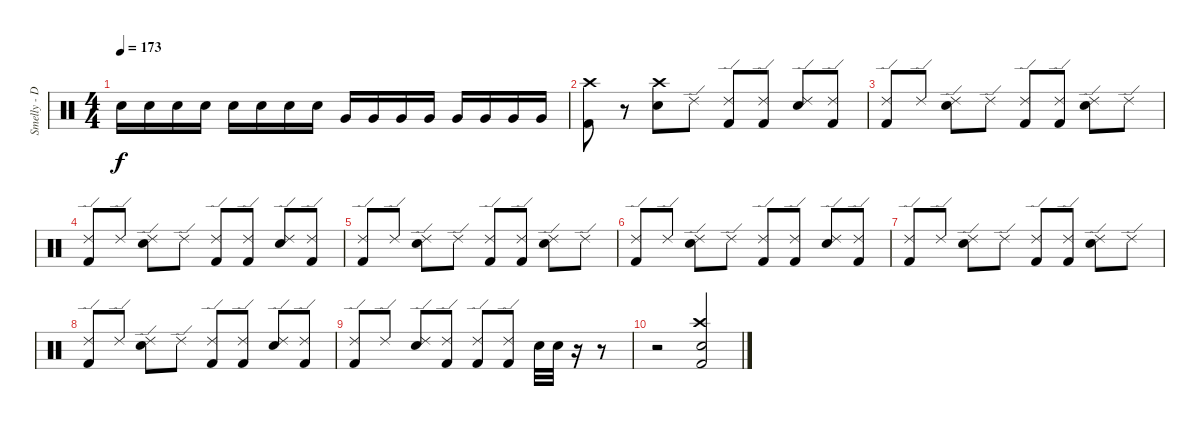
\track ("Smelly - Drums" "Smelly - D") {instrument percussion}
\staff {score}
\articulation defaults
\ts (4 4)
\tempo 173
\clef neutral
\ks c "Snare (hit) 2".16{dy f} "Snare (hit) 2".16 "Snare (hit) 2".16 "Snare (hit) 2".16 "Snare (hit) 2".16 "Snare (hit) 2".16 "Snare (hit) 2".16 "Snare (hit) 2".16 "Very Low Tom (hit)".16 "Very Low Tom (hit)".16 "Very Low Tom (hit)".16 "Very Low Tom (hit)".16 "Very Low Tom (hit)".16 "Very Low Tom (hit)".16 "Very Low Tom (hit)".16 "Very Low Tom (hit)".16
|
("Crash high (hit)" "Kick (hit) 2").8 r.8 ("Crash high (hit)" "Snare (hit) 2").8 "Ride (edge) 2".8 ("Ride (edge) 2" "Kick (hit) 2").8 ("Ride (edge) 2" "Kick (hit) 2").8 ("Ride (edge) 2" "Snare (hit) 2").8 ("Ride (edge) 2" "Kick (hit) 2").8 |
("Ride (edge) 2" "Kick (hit) 2").8 "Ride (edge) 2".8 ("Ride (edge) 2" "Snare (hit) 2").8 "Ride (edge) 2".8 ("Ride (edge) 2" "Kick (hit) 2").8 ("Ride (edge) 2" "Kick (hit) 2").8 ("Ride (edge) 2" "Snare (hit) 2").8 "Ride (edge) 2".8 |
("Ride (edge) 2" "Kick (hit) 2").8 "Ride (edge) 2".8 ("Ride (edge) 2" "Snare (hit) 2").8 "Ride (edge) 2".8 ("Ride (edge) 2" "Kick (hit) 2").8 ("Ride (edge) 2" "Kick (hit) 2").8 ("Ride (edge) 2" "Snare (hit) 2").8 ("Ride (edge) 2" "Kick (hit) 2").8 |
("Ride (edge) 2" "Kick (hit) 2").8 "Ride (edge) 2".8 ("Ride (edge) 2" "Snare (hit) 2").8 "Ride (edge) 2".8 ("Ride (edge) 2" "Kick (hit) 2").8 ("Ride (edge) 2" "Kick (hit) 2").8 ("Ride (edge) 2" "Snare (hit) 2").8 "Ride (edge) 2".8 |
("Ride (edge) 2" "Kick (hit) 2").8 "Ride (edge) 2".8 ("Ride (edge) 2" "Snare (hit) 2").8 "Ride (edge) 2".8 ("Ride (edge) 2" "Kick (hit) 2").8 ("Ride (edge) 2" "Kick (hit) 2").8 ("Ride (edge) 2" "Snare (hit) 2").8 ("Ride (edge) 2" "Kick (hit) 2").8 |
("Ride (edge) 2" "Kick (hit) 2").8 "Ride (edge) 2".8 ("Ride (edge) 2" "Snare (hit) 2").8 "Ride (edge) 2".8 ("Ride (edge) 2" "Kick (hit) 2").8 ("Ride (edge) 2" "Kick (hit) 2").8 ("Ride (edge) 2" "Snare (hit) 2").8 "Ride (edge) 2".8 |
("Ride (edge) 2" "Kick (hit) 2").8 "Ride (edge) 2".8 ("Ride (edge) 2" "Snare (hit) 2").8 "Ride (edge) 2".8 ("Ride (edge) 2" "Kick (hit) 2").8 ("Ride (edge) 2" "Kick (hit) 2").8 ("Ride (edge) 2" "Snare (hit) 2").8 ("Ride (edge) 2" "Kick (hit) 2").8 |
("Ride (edge) 2" "Kick (hit) 2").8 "Ride (edge) 2".8 ("Ride (edge) 2" "Snare (hit) 2").8 ("Ride (edge) 2" "Kick (hit) 2").8 ("Ride (edge) 2" "Kick (hit) 2").8 ("Ride (edge) 2" "Kick (hit) 2").8 "Snare (hit) 2".32 "Snare (hit) 2".32 r.16 r.8 |
r.2 ("Crash high (hit)" "Kick (hit) 2" "Snare (hit) 2").2
